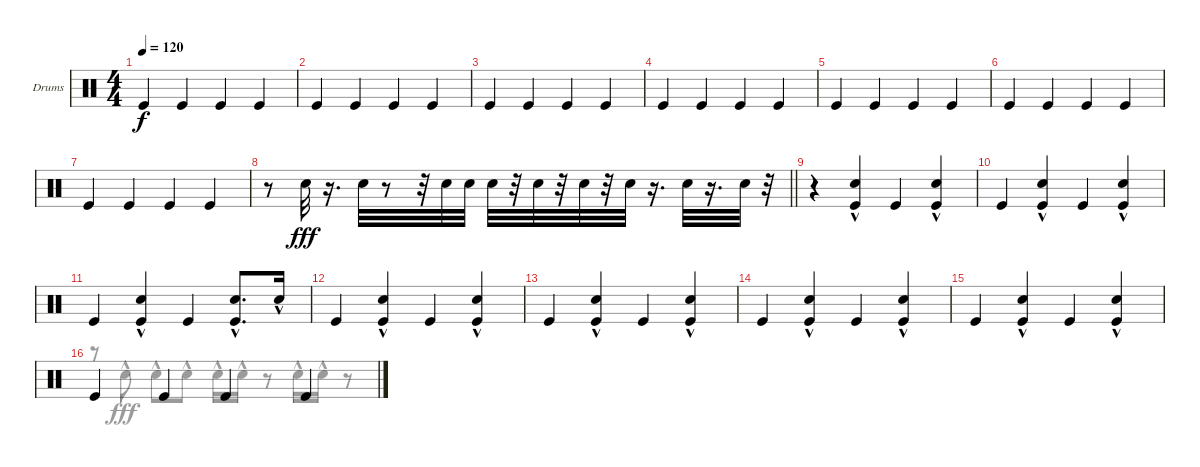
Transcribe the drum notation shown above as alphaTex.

\defaultSystemsLayout 4
\bracketExtendMode groupsimilarinstruments
\firstSystemTrackNameOrientation horizontal
\otherSystemsTrackNameOrientation horizontal
\track ("Drumkit" "Drums") {instrument percussion}
\staff {score}
\articulation defaults
\voice
\ts (4 4)
\tempo 120
\clef neutral
\scale
0.472222
\ks c "Kick (hit)".4{dy f} "Kick (hit)".4 "Kick (hit)".4 "Kick (hit)".4
|
\scale
0.263889 "Kick (hit)".4 "Kick (hit)".4 "Kick (hit)".4 "Kick (hit)".4 |
\scale
0.263889 "Kick (hit)".4 "Kick (hit)".4 "Kick (hit)".4 "Kick (hit)".4 |
\scale
0.333333 "Kick (hit)".4 "Kick (hit)".4 "Kick (hit)".4 "Kick (hit)".4 |
\scale
0.333333 "Kick (hit)".4 "Kick (hit)".4 "Kick (hit)".4 "Kick (hit)".4 |
\scale
0.333333 "Kick (hit)".4 "Kick (hit)".4 "Kick (hit)".4 "Kick (hit)".4 |
\scale
0.333333 "Kick (hit)".4 "Kick (hit)".4 "Kick (hit)".4 "Kick (hit)".4 |
\scale
0.333333
\barLineRight lightlight
r.8 "Snare (hit) 2".32{dy fff} r.16{d} "Snare (hit) 2".32 r.8 r.32 "Snare (hit) 2".32 "Snare (hit) 2".32 "Snare (hit) 2".32 r.32 "Snare (hit) 2".32 r.32 "Snare (hit) 2".32 r.32 "Snare (hit) 2".32 r.16{d} "Snare (hit) 2".32 r.16{d} "Snare (hit) 2".32 r.32 |
\scale
0.333333 r.4 ("Kick (hit)" "Snare (hit) 2"{hac}).4 "Kick (hit)".4 ("Kick (hit)" "Snare (hit) 2"{hac}).4 |
\scale
0.333333 "Kick (hit)".4 ("Kick (hit)" "Snare (hit) 2"{hac}).4 "Kick (hit)".4 ("Kick (hit)" "Snare (hit) 2"{hac}).4 |
\scale
0.333333 "Kick (hit)".4 ("Kick (hit)" "Snare (hit) 2"{hac}).4 "Kick (hit)".4 ("Kick (hit)" "Snare (hit) 2"{hac}).8{d} "Snare (hit) 2"{hac}.16 |
\scale
0.333333 "Kick (hit)".4 ("Kick (hit)" "Snare (hit) 2"{hac}).4 "Kick (hit)".4 ("Kick (hit)" "Snare (hit) 2"{hac}).4 |
\scale
0.333333 "Kick (hit)".4 ("Kick (hit)" "Snare (hit) 2"{hac}).4 "Kick (hit)".4 ("Kick (hit)" "Snare (hit) 2"{hac}).4 |
\scale
0.333333 "Kick (hit)".4 ("Kick (hit)" "Snare (hit) 2"{hac}).4 "Kick (hit)".4 ("Kick (hit)" "Snare (hit) 2"{hac}).4 |
\scale
0.333333 "Kick (hit)".4 ("Kick (hit)" "Snare (hit) 2"{hac}).4 "Kick (hit)".4 ("Kick (hit)" "Snare (hit) 2"{hac}).4 |
\scale
0.333333 "Kick (hit)".4 "Kick (hit)".4 "Kick (hit)".4 "Kick (hit)".4
\voice
\clef neutral
\ottava regular
\simile none
\scale
0.472222
\ks c
|
\scale
0.263889 |
\scale
0.263889 |
\scale
0.333333 |
\scale
0.333333 |
\scale
0.333333 |
\scale
0.333333 |
\scale
0.333333
\barLineRight lightlight
|
\scale
0.333333 |
\scale
0.333333 |
\scale
0.333333 |
\scale
0.333333 |
\scale
0.333333 |
\scale
0.333333 |
\scale
0.333333 |
\scale
0.333333 r.8 "Snare (hit) 2"{hac}.8 "Snare (hit) 2"{hac}.8 "Snare (hit) 2"{hac}.8 "Snare (hit) 2"{hac}.16 "Snare (hit) 2"{hac}.16 r.8 "Snare (hit) 2"{hac}.16 "Snare (hit) 2"{hac}.16 r.8
